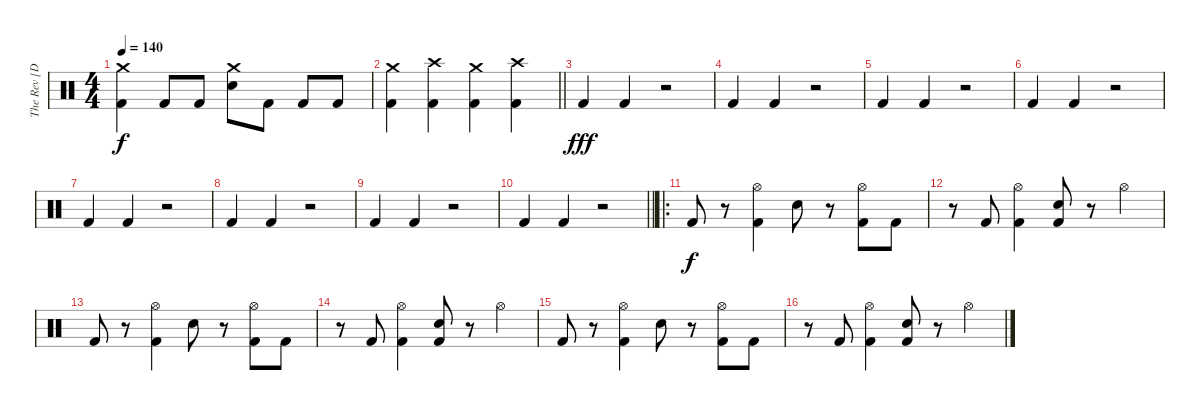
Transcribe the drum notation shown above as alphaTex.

\track ("The Rev [Drum]" "The Rev [D") {instrument percussion}
\staff {score}
\articulation defaults
\ts (4 4)
\tempo 140
\clef neutral
\ks c
("Crash medium (hit)" "Kick (hit) 2").4{dy f} "Kick (hit) 2".8 "Kick (hit) 2".8 ("Crash medium (hit)" "Snare (hit) 2").8 "Kick (hit) 2".8 "Kick (hit) 2".8 "Kick (hit) 2".8 |
\barLineRight lightlight
("Crash medium (hit)" "Kick (hit) 2").4 ("Crash high (hit)" "Kick (hit) 2").4 ("Crash medium (hit)" "Kick (hit) 2").4 ("Crash high (hit)" "Kick (hit) 2").4 |
"Kick (hit) 2".4{dy fff} "Kick (hit) 2".4 r.2 |
"Kick (hit) 2".4 "Kick (hit) 2".4 r.2 |
"Kick (hit) 2".4 "Kick (hit) 2".4 r.2 |
"Kick (hit) 2".4 "Kick (hit) 2".4 r.2 |
"Kick (hit) 2".4 "Kick (hit) 2".4 r.2 |
"Kick (hit) 2".4 "Kick (hit) 2".4 r.2 |
"Kick (hit) 2".4 "Kick (hit) 2".4 r.2 |
\barLineRight lightlight "Kick (hit) 2".4 "Kick (hit) 2".4
r.2 |
\ro "Kick (hit) 2".8{dy f}
r.8 ("Hi-Hat (open)" "Kick (hit) 2").4 "Snare (hit) 2".8 r.8 ("Hi-Hat (open)" "Kick (hit) 2").8 "Kick (hit) 2".8 |
r.8 "Kick (hit) 2".8 ("Hi-Hat (open)" "Kick (hit) 2").4 ("Snare (hit) 2" "Kick (hit) 2").8 r.8 "Hi-Hat (open)".4 |
"Kick (hit) 2".8 r.8 ("Hi-Hat (open)" "Kick (hit) 2").4 "Snare (hit) 2".8 r.8 ("Hi-Hat (open)" "Kick (hit) 2").8 "Kick (hit) 2".8 |
r.8 "Kick (hit) 2".8 ("Hi-Hat (open)" "Kick (hit) 2").4 ("Snare (hit) 2" "Kick (hit) 2").8 r.8 "Hi-Hat (open)".4 |
"Kick (hit) 2".8 r.8 ("Hi-Hat (open)" "Kick (hit) 2").4 "Snare (hit) 2".8 r.8 ("Hi-Hat (open)" "Kick (hit) 2").8 "Kick (hit) 2".8 |
r.8 "Kick (hit) 2".8 ("Hi-Hat (open)" "Kick (hit) 2").4 ("Snare (hit) 2" "Kick (hit) 2").8 r.8 "Hi-Hat (open)".4
